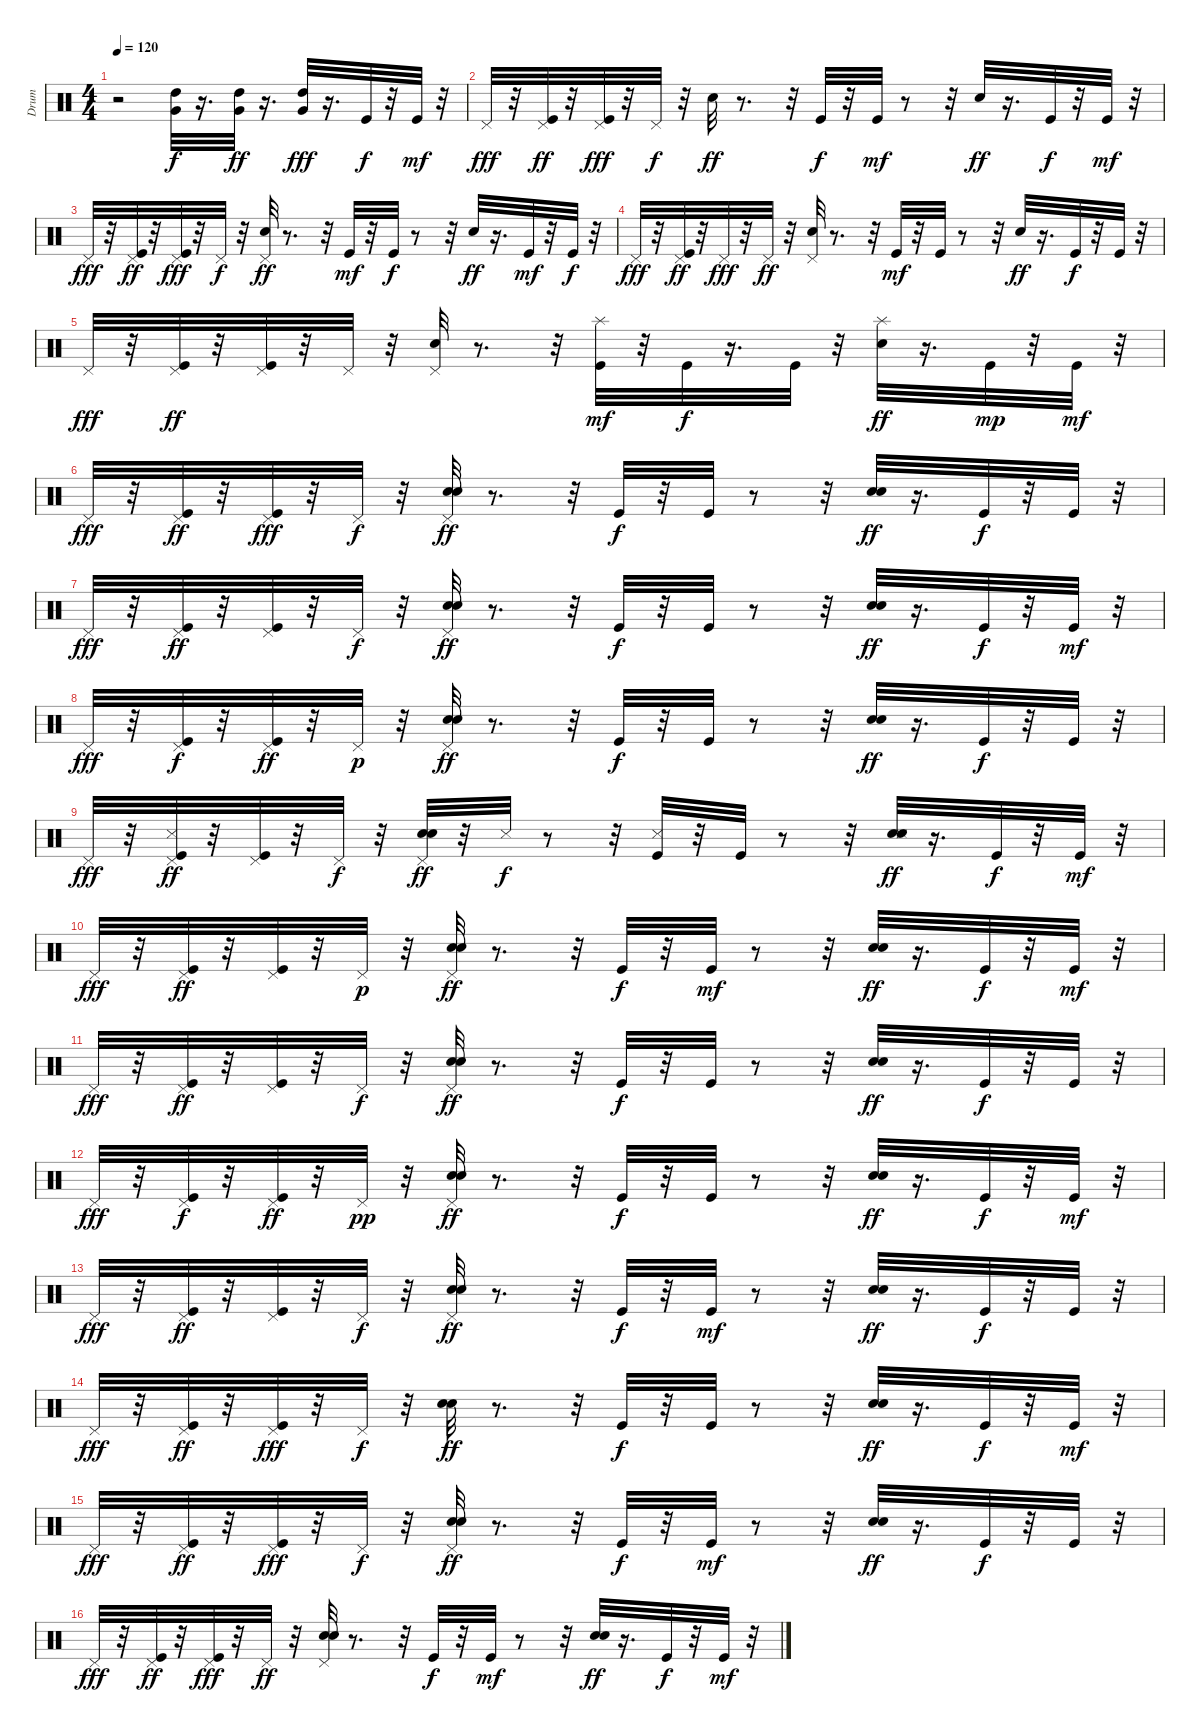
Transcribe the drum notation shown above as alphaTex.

\track ("Drum" "Drum") {instrument percussion}
\staff {score}
\articulation defaults
\ts (4 4)
\tempo 120
\clef neutral
\ks c
r.2{dy f} ("High Tom (hit)" "Very Low Tom (hit)").32 r.16{d} ("Very Low Tom (hit)" "High Tom (hit)").32{dy ff} r.16{d} ("High Tom (hit)" "Very Low Tom (hit)").32{dy fff} r.16{d} "Kick (hit)".32{dy f} r.32 "Kick (hit)".32{dy mf} r.32 |
"Pedal Hi-Hat (hit)".32{dy fff} r.32 ("Kick (hit)" "Pedal Hi-Hat (hit)").32{dy ff} r.32 ("Kick (hit)" "Pedal Hi-Hat (hit)").32{dy fff} r.32 "Pedal Hi-Hat (hit)".32{dy f} r.32 "Snare (hit) 2".32{dy ff} r.8{d} r.32 "Kick (hit)".32{dy f} r.32 "Kick (hit)".32{dy mf} r.8 r.32 "Snare (hit) 2".32{dy ff} r.16{d} "Kick (hit)".32{dy f} r.32 "Kick (hit)".32{dy mf} r.32 |
"Pedal Hi-Hat (hit)".32{dy fff} r.32 ("Kick (hit)" "Pedal Hi-Hat (hit)").32{dy ff} r.32 ("Kick (hit)" "Pedal Hi-Hat (hit)").32{dy fff} r.32 "Pedal Hi-Hat (hit)".32{dy f} r.32 ("Snare (hit) 2" "Pedal Hi-Hat (hit)").32{dy ff} r.8{d} r.32 "Kick (hit)".32{dy mf} r.32 "Kick (hit)".32{dy f} r.8 r.32 "Snare (hit) 2".32{dy ff} r.16{d} "Kick (hit)".32{dy mf} r.32 "Kick (hit)".32{dy f} r.32 |
"Pedal Hi-Hat (hit)".32{dy fff} r.32 ("Kick (hit)" "Pedal Hi-Hat (hit)").32{dy ff} r.32 "Pedal Hi-Hat (hit)".32{dy fff} r.32 "Pedal Hi-Hat (hit)".32{dy ff} r.32 ("Snare (hit) 2" "Pedal Hi-Hat (hit)").32 r.8{d} r.32 "Kick (hit)".32{dy mf} r.32 "Kick (hit)".32 r.8 r.32 "Snare (hit) 2".32{dy ff} r.16{d} "Kick (hit)".32{dy f} r.32 "Kick (hit)".32 r.32 |
"Pedal Hi-Hat (hit)".32{dy fff} r.32 ("Kick (hit)" "Pedal Hi-Hat (hit)").32{dy ff} r.32 ("Kick (hit)" "Pedal Hi-Hat (hit)").32 r.32 "Pedal Hi-Hat (hit)".32 r.32 ("Snare (hit) 2" "Pedal Hi-Hat (hit)").32 r.8{d} r.32 ("Kick (hit)" "Splash (hit)").32{dy mf} r.32 "Kick (hit)".32{dy f} r.16{d} "Kick (hit)".32 r.32 ("Snare (hit) 2" "Splash (hit)").32{dy ff} r.16{d} "Kick (hit)".32{dy mp} r.32 "Kick (hit)".32{dy mf} r.32 |
"Pedal Hi-Hat (hit)".32{dy fff} r.32 ("Kick (hit)" "Pedal Hi-Hat (hit)").32{dy ff} r.32 ("Kick (hit)" "Pedal Hi-Hat (hit)").32{dy fff} r.32 "Pedal Hi-Hat (hit)".32{dy f} r.32 ("Electric Snare (hit)" "Snare (hit) 2" "Pedal Hi-Hat (hit)").32{dy ff} r.8{d} r.32 "Kick (hit)".32{dy f} r.32 "Kick (hit)".32 r.8 r.32 ("Snare (hit) 2" "Electric Snare (hit)").32{dy ff} r.16{d} "Kick (hit)".32{dy f} r.32 "Kick (hit)".32 r.32 |
"Pedal Hi-Hat (hit)".32{dy fff} r.32 ("Kick (hit)" "Pedal Hi-Hat (hit)").32{dy ff} r.32 ("Kick (hit)" "Pedal Hi-Hat (hit)").32 r.32 "Pedal Hi-Hat (hit)".32{dy f} r.32 ("Snare (hit) 2" "Electric Snare (hit)" "Pedal Hi-Hat (hit)").32{dy ff} r.8{d} r.32 "Kick (hit)".32{dy f} r.32 "Kick (hit)".32 r.8 r.32 ("Snare (hit) 2" "Electric Snare (hit)").32{dy ff} r.16{d} "Kick (hit)".32{dy f} r.32 "Kick (hit)".32{dy mf} r.32 |
"Pedal Hi-Hat (hit)".32{dy fff} r.32 ("Pedal Hi-Hat (hit)" "Kick (hit)").32{dy f} r.32 ("Kick (hit)" "Pedal Hi-Hat (hit)").32{dy ff} r.32 "Pedal Hi-Hat (hit)".32{dy p} r.32 ("Pedal Hi-Hat (hit)" "Snare (hit) 2" "Electric Snare (hit)").32{dy ff} r.8{d} r.32 "Kick (hit)".32{dy f} r.32 "Kick (hit)".32 r.8 r.32 ("Snare (hit) 2" "Electric Snare (hit)").32{dy ff} r.16{d} "Kick (hit)".32{dy f} r.32 "Kick (hit)".32 r.32 |
"Pedal Hi-Hat (hit)".32{dy fff} r.32 ("Snare (side stick) 3" "Kick (hit)" "Pedal Hi-Hat (hit)").32{dy ff} r.32 ("Kick (hit)" "Pedal Hi-Hat (hit)").32 r.32 "Pedal Hi-Hat (hit)".32{dy f} r.32 ("Pedal Hi-Hat (hit)" "Snare (hit) 2" "Electric Snare (hit)").32{dy ff} r.32 "Snare (side stick) 3".32{dy f} r.8 r.32 ("Kick (hit)" "Snare (side stick) 3").32 r.32 "Kick (hit)".32 r.8 r.32 ("Snare (hit) 2" "Electric Snare (hit)" "Snare (side stick) 3").32{dy ff} r.16{d} "Kick (hit)".32{dy f} r.32 "Kick (hit)".32{dy mf} r.32 |
"Pedal Hi-Hat (hit)".32{dy fff} r.32 ("Kick (hit)" "Pedal Hi-Hat (hit)").32{dy ff} r.32 ("Kick (hit)" "Pedal Hi-Hat (hit)").32 r.32 "Pedal Hi-Hat (hit)".32{dy p} r.32 ("Snare (hit) 2" "Electric Snare (hit)" "Pedal Hi-Hat (hit)").32{dy ff} r.8{d} r.32 "Kick (hit)".32{dy f} r.32 "Kick (hit)".32{dy mf} r.8 r.32 ("Snare (hit) 2" "Electric Snare (hit)").32{dy ff} r.16{d} "Kick (hit)".32{dy f} r.32 "Kick (hit)".32{dy mf} r.32 |
"Pedal Hi-Hat (hit)".32{dy fff} r.32 ("Pedal Hi-Hat (hit)" "Kick (hit)").32{dy ff} r.32 ("Kick (hit)" "Pedal Hi-Hat (hit)").32 r.32 "Pedal Hi-Hat (hit)".32{dy f} r.32 ("Snare (hit) 2" "Electric Snare (hit)" "Pedal Hi-Hat (hit)").32{dy ff} r.8{d} r.32 "Kick (hit)".32{dy f} r.32 "Kick (hit)".32 r.8 r.32 ("Snare (hit) 2" "Electric Snare (hit)").32{dy ff} r.16{d} "Kick (hit)".32{dy f} r.32 "Kick (hit)".32 r.32 |
"Pedal Hi-Hat (hit)".32{dy fff} r.32 ("Kick (hit)" "Pedal Hi-Hat (hit)").32{dy f} r.32 ("Kick (hit)" "Pedal Hi-Hat (hit)").32{dy ff} r.32 "Pedal Hi-Hat (hit)".32{dy pp} r.32 ("Snare (hit) 2" "Electric Snare (hit)" "Pedal Hi-Hat (hit)").32{dy ff} r.8{d} r.32 "Kick (hit)".32{dy f} r.32 "Kick (hit)".32 r.8 r.32 ("Electric Snare (hit)" "Snare (hit) 2").32{dy ff} r.16{d} "Kick (hit)".32{dy f} r.32 "Kick (hit)".32{dy mf} r.32 |
"Pedal Hi-Hat (hit)".32{dy fff} r.32 ("Kick (hit)" "Pedal Hi-Hat (hit)").32{dy ff} r.32 ("Kick (hit)" "Pedal Hi-Hat (hit)").32 r.32 "Pedal Hi-Hat (hit)".32{dy f} r.32 ("Snare (hit) 2" "Electric Snare (hit)" "Pedal Hi-Hat (hit)").32{dy ff} r.8{d} r.32 "Kick (hit)".32{dy f} r.32 "Kick (hit)".32{dy mf} r.8 r.32 ("Snare (hit) 2" "Electric Snare (hit)").32{dy ff} r.16{d} "Kick (hit)".32{dy f} r.32 "Kick (hit)".32 r.32 |
"Pedal Hi-Hat (hit)".32{dy fff} r.32 ("Kick (hit)" "Pedal Hi-Hat (hit)").32{dy ff} r.32 ("Kick (hit)" "Pedal Hi-Hat (hit)").32{dy fff} r.32 "Pedal Hi-Hat (hit)".32{dy f} r.32 ("Snare (hit) 2" "Electric Snare (hit)").32{dy ff} r.8{d} r.32 "Kick (hit)".32{dy f} r.32 "Kick (hit)".32 r.8 r.32 ("Snare (hit) 2" "Electric Snare (hit)").32{dy ff} r.16{d} "Kick (hit)".32{dy f} r.32 "Kick (hit)".32{dy mf} r.32 |
"Pedal Hi-Hat (hit)".32{dy fff} r.32 ("Kick (hit)" "Pedal Hi-Hat (hit)").32{dy ff} r.32 ("Kick (hit)" "Pedal Hi-Hat (hit)").32{dy fff} r.32 "Pedal Hi-Hat (hit)".32{dy f} r.32 ("Snare (hit) 2" "Electric Snare (hit)" "Pedal Hi-Hat (hit)").32{dy ff} r.8{d} r.32 "Kick (hit)".32{dy f} r.32 "Kick (hit)".32{dy mf} r.8 r.32 ("Electric Snare (hit)" "Snare (hit) 2").32{dy ff} r.16{d} "Kick (hit)".32{dy f} r.32 "Kick (hit)".32 r.32 |
"Pedal Hi-Hat (hit)".32{dy fff} r.32 ("Kick (hit)" "Pedal Hi-Hat (hit)").32{dy ff} r.32 ("Kick (hit)" "Pedal Hi-Hat (hit)").32{dy fff} r.32 "Pedal Hi-Hat (hit)".32{dy ff} r.32 ("Snare (hit) 2" "Electric Snare (hit)" "Pedal Hi-Hat (hit)").32 r.8{d} r.32 "Kick (hit)".32{dy f} r.32 "Kick (hit)".32{dy mf} r.8 r.32 ("Snare (hit) 2" "Electric Snare (hit)").32{dy ff} r.16{d} "Kick (hit)".32{dy f} r.32 "Kick (hit)".32{dy mf} r.32
